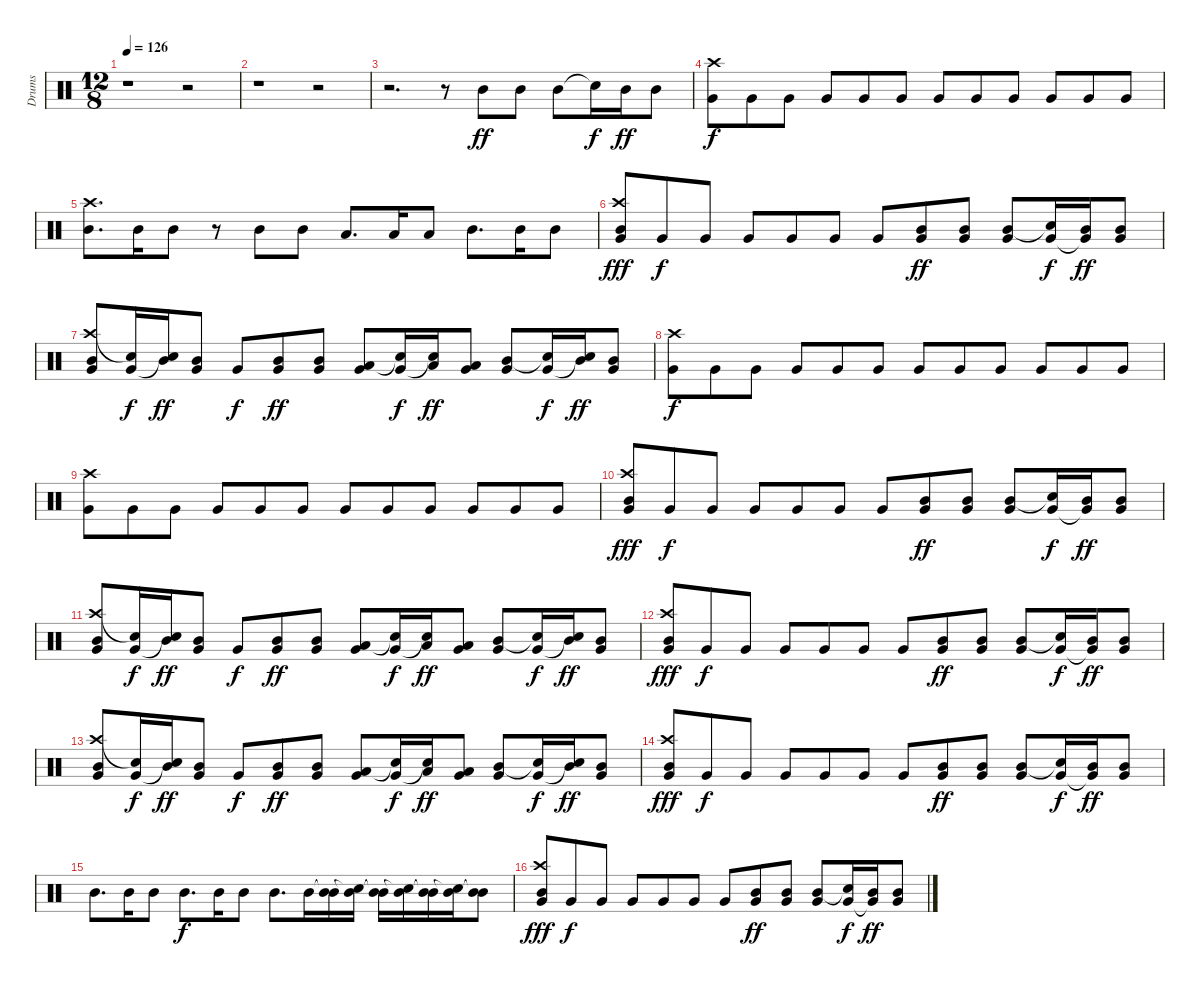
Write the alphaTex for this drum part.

\track ("Drums" "Drums") {instrument percussion}
\staff {score}
\articulation defaults
\ts (12 8)
\tempo 126
\clef neutral
\ks c
r.1{dy fff} r.2 |
r.1 r.2 |
r.2{d} r.8 "Mid Tom (hit)".8{dy ff} "Mid Tom (hit)".8 "Mid Tom (hit)".8 "Snare (hit)"{t}.16{dy f} "Mid Tom (hit)".16{dy ff} "Mid Tom (hit)".8 |
("Crash high (hit)" "Very Low Tom (hit)").8{dy f} "Very Low Tom (hit)".8 "Very Low Tom (hit)".8 "Very Low Tom (hit)".8 "Very Low Tom (hit)".8 "Very Low Tom (hit)".8 "Very Low Tom (hit)".8 "Very Low Tom (hit)".8 "Very Low Tom (hit)".8 "Very Low Tom (hit)".8 "Very Low Tom (hit)".8 "Very Low Tom (hit)".8 |
("Crash high (hit)" "Mid Tom (hit)").8{d} "Mid Tom (hit)".16 "Mid Tom (hit)".8 r.8 "Mid Tom (hit)".8 "Mid Tom (hit)".8 "Low Tom (hit)".8{d} "Low Tom (hit)".16 "Low Tom (hit)".8 "Mid Tom (hit)".8{d} "Mid Tom (hit)".16 "Mid Tom (hit)".8 |
("Crash high (hit)" "Very Low Tom (hit)" "Mid Tom (hit)").8{dy fff} "Very Low Tom (hit)".8{dy f} "Very Low Tom (hit)".8 "Very Low Tom (hit)".8 "Very Low Tom (hit)".8 "Very Low Tom (hit)".8 "Very Low Tom (hit)".8 ("Mid Tom (hit)" "Very Low Tom (hit)").8{dy ff} ("Mid Tom (hit)" "Very Low Tom (hit)").8 ("Mid Tom (hit)" "Very Low Tom (hit)").8 ("Snare (hit)"{t} "Very Low Tom (hit)").16{dy f} ("Mid Tom (hit)" "Very Low Tom (hit)"{t}).16{dy ff} ("Mid Tom (hit)" "Very Low Tom (hit)").8 |
("Crash high (hit)" "Mid Tom (hit)" "Very Low Tom (hit)").8 ("Snare (hit)"{t} "Very Low Tom (hit)").16{dy f} ("Mid Tom (hit)" "Snare (hit)"{t}).16{dy ff} ("Mid Tom (hit)" "Very Low Tom (hit)").8 "Very Low Tom (hit)".8{dy f} ("Mid Tom (hit)" "Very Low Tom (hit)").8{dy ff} ("Mid Tom (hit)" "Very Low Tom (hit)").8 ("Low Tom (hit)" "Very Low Tom (hit)").8 ("Snare (hit)"{t} "Very Low Tom (hit)").16{dy f} ("Low Tom (hit)" "Snare (hit)"{t}).16{dy ff} ("Low Tom (hit)" "Very Low Tom (hit)").8 ("Mid Tom (hit)" "Very Low Tom (hit)").8 ("Snare (hit)"{t} "Very Low Tom (hit)").16{dy f} ("Mid Tom (hit)" "Snare (hit)"{t}).16{dy ff} ("Mid Tom (hit)" "Very Low Tom (hit)").8 |
("Crash high (hit)" "Very Low Tom (hit)").8{dy f} "Very Low Tom (hit)".8 "Very Low Tom (hit)".8 "Very Low Tom (hit)".8 "Very Low Tom (hit)".8 "Very Low Tom (hit)".8 "Very Low Tom (hit)".8 "Very Low Tom (hit)".8 "Very Low Tom (hit)".8 "Very Low Tom (hit)".8 "Very Low Tom (hit)".8 "Very Low Tom (hit)".8 |
("Crash high (hit)" "Very Low Tom (hit)").8 "Very Low Tom (hit)".8 "Very Low Tom (hit)".8 "Very Low Tom (hit)".8 "Very Low Tom (hit)".8 "Very Low Tom (hit)".8 "Very Low Tom (hit)".8 "Very Low Tom (hit)".8 "Very Low Tom (hit)".8 "Very Low Tom (hit)".8 "Very Low Tom (hit)".8 "Very Low Tom (hit)".8 |
("Crash high (hit)" "Very Low Tom (hit)" "Mid Tom (hit)").8{dy fff} "Very Low Tom (hit)".8{dy f} "Very Low Tom (hit)".8 "Very Low Tom (hit)".8 "Very Low Tom (hit)".8 "Very Low Tom (hit)".8 "Very Low Tom (hit)".8 ("Mid Tom (hit)" "Very Low Tom (hit)").8{dy ff} ("Mid Tom (hit)" "Very Low Tom (hit)").8 ("Mid Tom (hit)" "Very Low Tom (hit)").8 ("Snare (hit)"{t} "Very Low Tom (hit)").16{dy f} ("Mid Tom (hit)" "Very Low Tom (hit)"{t}).16{dy ff} ("Mid Tom (hit)" "Very Low Tom (hit)").8 |
("Crash high (hit)" "Mid Tom (hit)" "Very Low Tom (hit)").8 ("Snare (hit)"{t} "Very Low Tom (hit)").16{dy f} ("Mid Tom (hit)" "Snare (hit)"{t}).16{dy ff} ("Mid Tom (hit)" "Very Low Tom (hit)").8 "Very Low Tom (hit)".8{dy f} ("Mid Tom (hit)" "Very Low Tom (hit)").8{dy ff} ("Mid Tom (hit)" "Very Low Tom (hit)").8 ("Low Tom (hit)" "Very Low Tom (hit)").8 ("Snare (hit)"{t} "Very Low Tom (hit)").16{dy f} ("Low Tom (hit)" "Snare (hit)"{t}).16{dy ff} ("Low Tom (hit)" "Very Low Tom (hit)").8 ("Mid Tom (hit)" "Very Low Tom (hit)").8 ("Snare (hit)"{t} "Very Low Tom (hit)").16{dy f} ("Mid Tom (hit)" "Snare (hit)"{t}).16{dy ff} ("Mid Tom (hit)" "Very Low Tom (hit)").8 |
("Crash high (hit)" "Very Low Tom (hit)" "Mid Tom (hit)").8{dy fff} "Very Low Tom (hit)".8{dy f} "Very Low Tom (hit)".8 "Very Low Tom (hit)".8 "Very Low Tom (hit)".8 "Very Low Tom (hit)".8 "Very Low Tom (hit)".8 ("Mid Tom (hit)" "Very Low Tom (hit)").8{dy ff} ("Mid Tom (hit)" "Very Low Tom (hit)").8 ("Mid Tom (hit)" "Very Low Tom (hit)").8 ("Snare (hit)"{t} "Very Low Tom (hit)").16{dy f} ("Mid Tom (hit)" "Very Low Tom (hit)"{t}).16{dy ff} ("Mid Tom (hit)" "Very Low Tom (hit)").8 |
("Crash high (hit)" "Mid Tom (hit)" "Very Low Tom (hit)").8 ("Snare (hit)"{t} "Very Low Tom (hit)").16{dy f} ("Mid Tom (hit)" "Snare (hit)"{t}).16{dy ff} ("Mid Tom (hit)" "Very Low Tom (hit)").8 "Very Low Tom (hit)".8{dy f} ("Mid Tom (hit)" "Very Low Tom (hit)").8{dy ff} ("Mid Tom (hit)" "Very Low Tom (hit)").8 ("Low Tom (hit)" "Very Low Tom (hit)").8 ("Snare (hit)"{t} "Very Low Tom (hit)").16{dy f} ("Low Tom (hit)" "Snare (hit)"{t}).16{dy ff} ("Low Tom (hit)" "Very Low Tom (hit)").8 ("Mid Tom (hit)" "Very Low Tom (hit)").8 ("Snare (hit)"{t} "Very Low Tom (hit)").16{dy f} ("Mid Tom (hit)" "Snare (hit)"{t}).16{dy ff} ("Mid Tom (hit)" "Very Low Tom (hit)").8 |
("Crash high (hit)" "Very Low Tom (hit)" "Mid Tom (hit)").8{dy fff} "Very Low Tom (hit)".8{dy f} "Very Low Tom (hit)".8 "Very Low Tom (hit)".8 "Very Low Tom (hit)".8 "Very Low Tom (hit)".8 "Very Low Tom (hit)".8 ("Mid Tom (hit)" "Very Low Tom (hit)").8{dy ff} ("Mid Tom (hit)" "Very Low Tom (hit)").8 ("Mid Tom (hit)" "Very Low Tom (hit)").8 ("Snare (hit)"{t} "Very Low Tom (hit)").16{dy f} ("Mid Tom (hit)" "Very Low Tom (hit)"{t}).16{dy ff} ("Mid Tom (hit)" "Very Low Tom (hit)").8 |
"Mid Tom (hit)".8{d} "Mid Tom (hit)".16 "Mid Tom (hit)".8 "Mid Tom (hit)".8{d dy f} "Mid Tom (hit)".16 "Mid Tom (hit)".8 "Mid Tom (hit)".8{d} "Mid Tom (hit)".16 ("Mid Tom (hit)"{t} "Mid Tom (hit)").16 ("Mid Tom (hit)" "Snare (hit)"{t}).16 ("Mid Tom (hit)"{t} "Mid Tom (hit)").16 ("Mid Tom (hit)" "Snare (hit)"{t}).16 ("Mid Tom (hit)"{t} "Mid Tom (hit)").16 ("Mid Tom (hit)" "Snare (hit)"{t}).16 ("Mid Tom (hit)"{t} "Mid Tom (hit)").8 |
("Crash high (hit)" "Very Low Tom (hit)" "Mid Tom (hit)").8{dy fff} "Very Low Tom (hit)".8{dy f} "Very Low Tom (hit)".8 "Very Low Tom (hit)".8 "Very Low Tom (hit)".8 "Very Low Tom (hit)".8 "Very Low Tom (hit)".8 ("Mid Tom (hit)" "Very Low Tom (hit)").8{dy ff} ("Mid Tom (hit)" "Very Low Tom (hit)").8 ("Mid Tom (hit)" "Very Low Tom (hit)").8 ("Snare (hit)"{t} "Very Low Tom (hit)").16{dy f} ("Mid Tom (hit)" "Very Low Tom (hit)"{t}).16{dy ff} ("Mid Tom (hit)" "Very Low Tom (hit)").8
